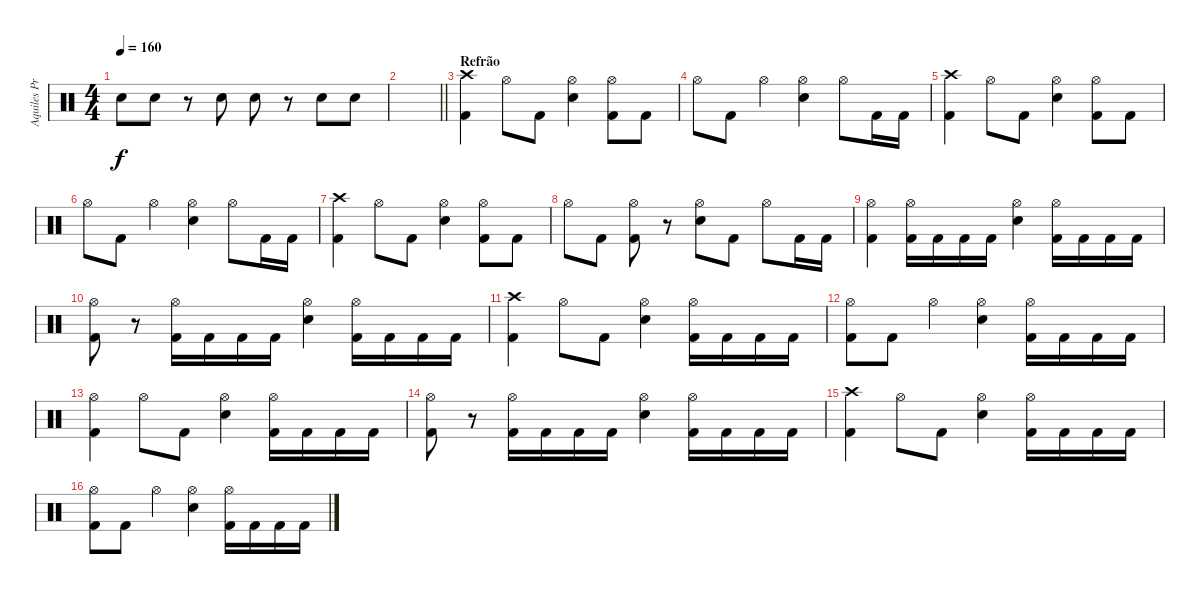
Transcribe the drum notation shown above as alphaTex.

\track ("Aquiles Priester" "Aquiles Pr") {instrument percussion}
\staff {score}
\articulation defaults
\ts (4 4)
\tempo 160
\clef neutral
\ks c "Electric Snare (hit)".8{dy f} "Electric Snare (hit)".8
r.8 "Electric Snare (hit)".8 "Electric Snare (hit)".8 r.8 "Electric Snare (hit)".8 "Electric Snare (hit)".8 |
\barLineRight lightlight
|
\section ("" "Refrão")
("Crash high (hit)" "Kick (hit) 2").4 "Hi-Hat (open)".8 "Kick (hit) 2".8 ("Hi-Hat (open)" "Electric Snare (hit)").4 ("Hi-Hat (open)" "Kick (hit) 2").8 "Kick (hit) 2".8 |
"Hi-Hat (open)".8 "Kick (hit) 2".8 "Hi-Hat (open)".4 ("Hi-Hat (open)" "Electric Snare (hit)").4 "Hi-Hat (open)".8 "Kick (hit) 2".16 "Kick (hit) 2".16 |
("Crash high (hit)" "Kick (hit) 2").4 "Hi-Hat (open)".8 "Kick (hit) 2".8 ("Hi-Hat (open)" "Electric Snare (hit)").4 ("Hi-Hat (open)" "Kick (hit) 2").8 "Kick (hit) 2".8 |
"Hi-Hat (open)".8 "Kick (hit) 2".8 "Hi-Hat (open)".4 ("Hi-Hat (open)" "Electric Snare (hit)").4 "Hi-Hat (open)".8 "Kick (hit) 2".16 "Kick (hit) 2".16 |
("Crash high (hit)" "Kick (hit) 2").4 "Hi-Hat (open)".8 "Kick (hit) 2".8 ("Hi-Hat (open)" "Electric Snare (hit)").4 ("Hi-Hat (open)" "Kick (hit) 2").8 "Kick (hit) 2".8 |
"Hi-Hat (open)".8 "Kick (hit) 2".8 ("Hi-Hat (open)" "Kick (hit) 2").8 r.8 ("Hi-Hat (open)" "Electric Snare (hit)").8 "Kick (hit) 2".8 "Hi-Hat (open)".8 "Kick (hit) 2".16 "Kick (hit) 2".16 |
("Hi-Hat (open)" "Kick (hit) 2").4 ("Hi-Hat (open)" "Kick (hit) 2").16 "Kick (hit) 2".16 "Kick (hit) 2".16 "Kick (hit) 2".16 ("Hi-Hat (open)" "Electric Snare (hit)").4 ("Hi-Hat (open)" "Kick (hit) 2").16 "Kick (hit) 2".16 "Kick (hit) 2".16 "Kick (hit) 2".16 |
("Hi-Hat (open)" "Kick (hit) 2").8 r.8 ("Hi-Hat (open)" "Kick (hit) 2").16 "Kick (hit) 2".16 "Kick (hit) 2".16 "Kick (hit) 2".16 ("Hi-Hat (open)" "Electric Snare (hit)").4 ("Hi-Hat (open)" "Kick (hit) 2").16 "Kick (hit) 2".16 "Kick (hit) 2".16 "Kick (hit) 2".16 |
("Crash high (hit)" "Kick (hit) 2").4 "Hi-Hat (open)".8 "Kick (hit) 2".8 ("Hi-Hat (open)" "Electric Snare (hit)").4 ("Hi-Hat (open)" "Kick (hit) 2").16 "Kick (hit) 2".16 "Kick (hit) 2".16 "Kick (hit) 2".16 |
("Hi-Hat (open)" "Kick (hit) 2").8 "Kick (hit) 2".8 "Hi-Hat (open)".4 ("Hi-Hat (open)" "Electric Snare (hit)").4 ("Hi-Hat (open)" "Kick (hit) 2").16 "Kick (hit) 2".16 "Kick (hit) 2".16 "Kick (hit) 2".16 |
("Hi-Hat (open)" "Kick (hit) 2").4 "Hi-Hat (open)".8 "Kick (hit) 2".8 ("Hi-Hat (open)" "Electric Snare (hit)").4 ("Hi-Hat (open)" "Kick (hit) 2").16 "Kick (hit) 2".16 "Kick (hit) 2".16 "Kick (hit) 2".16 |
("Hi-Hat (open)" "Kick (hit) 2").8 r.8 ("Hi-Hat (open)" "Kick (hit) 2").16 "Kick (hit) 2".16 "Kick (hit) 2".16 "Kick (hit) 2".16 ("Hi-Hat (open)" "Electric Snare (hit)").4 ("Hi-Hat (open)" "Kick (hit) 2").16 "Kick (hit) 2".16 "Kick (hit) 2".16 "Kick (hit) 2".16 |
("Crash high (hit)" "Kick (hit) 2").4 "Hi-Hat (open)".8 "Kick (hit) 2".8 ("Hi-Hat (open)" "Electric Snare (hit)").4 ("Hi-Hat (open)" "Kick (hit) 2").16 "Kick (hit) 2".16 "Kick (hit) 2".16 "Kick (hit) 2".16 |
("Hi-Hat (open)" "Kick (hit) 2").8 "Kick (hit) 2".8 "Hi-Hat (open)".4 ("Hi-Hat (open)" "Electric Snare (hit)").4 ("Hi-Hat (open)" "Kick (hit) 2").16 "Kick (hit) 2".16 "Kick (hit) 2".16 "Kick (hit) 2".16
